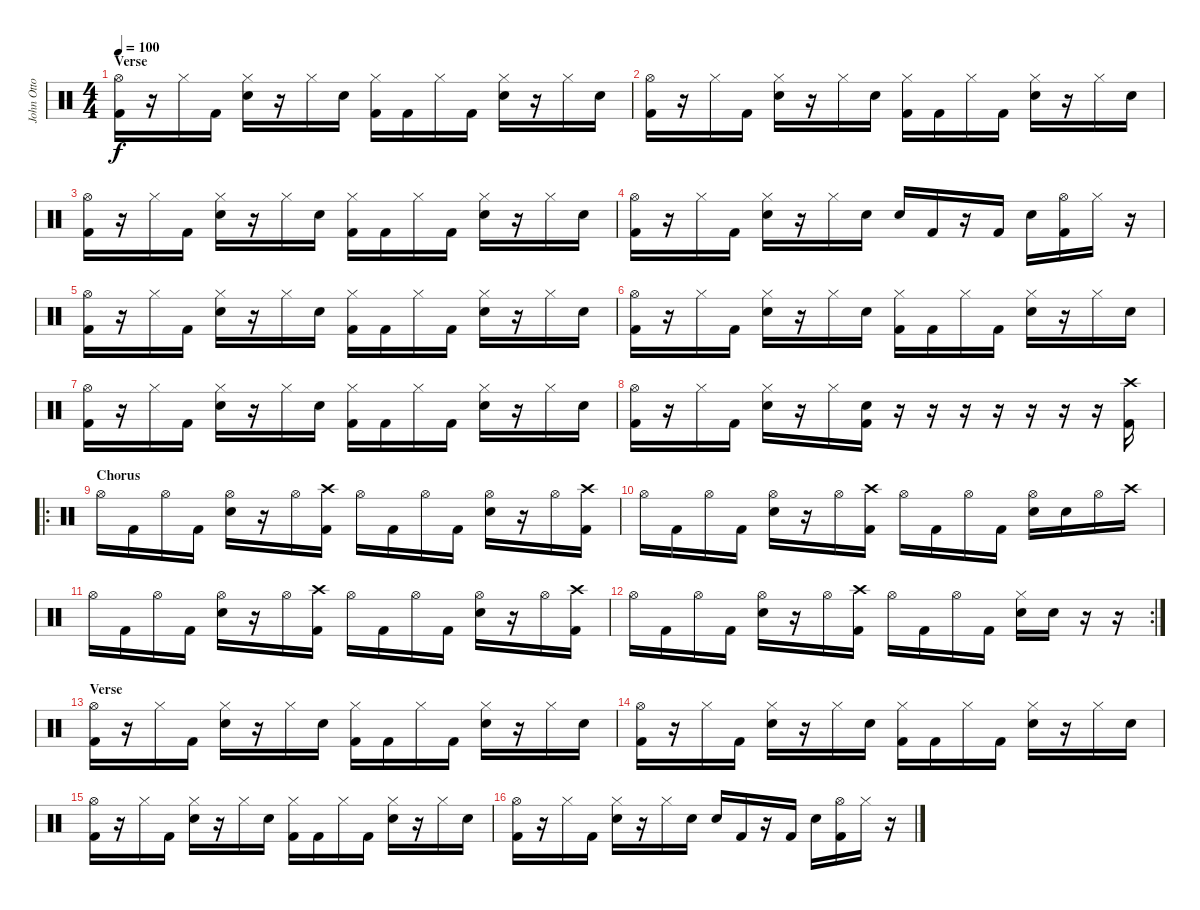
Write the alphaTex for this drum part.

\track ("John Otto" "John Otto") {instrument percussion}
\staff {score}
\articulation defaults
\ts (4 4)
\section ("" "Verse")
\tempo 100
\clef neutral
\ks c
("Hi-Hat (open)" "Kick (hit) 2").16{dy f} r.16 "Hi-Hat (closed)".16 "Kick (hit) 2".16 ("Hi-Hat (closed)" "Snare (hit) 2").16 r.16 "Hi-Hat (closed)".16 "Snare (hit) 2".16 ("Hi-Hat (closed)" "Kick (hit) 2").16 "Kick (hit) 2".16 "Hi-Hat (closed)".16 "Kick (hit) 2".16 ("Hi-Hat (closed)" "Snare (hit) 2").16 r.16 "Hi-Hat (closed)".16 "Snare (hit) 2".16 |
("Hi-Hat (open)" "Kick (hit) 2").16 r.16 "Hi-Hat (closed)".16 "Kick (hit) 2".16 ("Hi-Hat (closed)" "Snare (hit) 2").16 r.16 "Hi-Hat (closed)".16 "Snare (hit) 2".16 ("Hi-Hat (closed)" "Kick (hit) 2").16 "Kick (hit) 2".16 "Hi-Hat (closed)".16 "Kick (hit) 2".16 ("Hi-Hat (closed)" "Snare (hit) 2").16 r.16 "Hi-Hat (closed)".16 "Snare (hit) 2".16 |
("Hi-Hat (open)" "Kick (hit) 2").16 r.16 "Hi-Hat (closed)".16 "Kick (hit) 2".16 ("Hi-Hat (closed)" "Snare (hit) 2").16 r.16 "Hi-Hat (closed)".16 "Snare (hit) 2".16 ("Hi-Hat (closed)" "Kick (hit) 2").16 "Kick (hit) 2".16 "Hi-Hat (closed)".16 "Kick (hit) 2".16 ("Hi-Hat (closed)" "Snare (hit) 2").16 r.16 "Hi-Hat (closed)".16 "Snare (hit) 2".16 |
("Hi-Hat (open)" "Kick (hit) 2").16 r.16 "Hi-Hat (closed)".16 "Kick (hit) 2".16 ("Hi-Hat (closed)" "Snare (hit) 2").16 r.16 "Hi-Hat (closed)".16 "Snare (hit) 2".16 "Snare (hit) 2".16 "Kick (hit) 2".16 r.16 "Kick (hit) 2".16 "Snare (hit) 2".16 ("Hi-Hat (open)" "Kick (hit) 2").16 "Hi-Hat (closed)".16 r.16 |
("Hi-Hat (open)" "Kick (hit) 2").16 r.16 "Hi-Hat (closed)".16 "Kick (hit) 2".16 ("Hi-Hat (closed)" "Snare (hit) 2").16 r.16 "Hi-Hat (closed)".16 "Snare (hit) 2".16 ("Hi-Hat (closed)" "Kick (hit) 2").16 "Kick (hit) 2".16 "Hi-Hat (closed)".16 "Kick (hit) 2".16 ("Hi-Hat (closed)" "Snare (hit) 2").16 r.16 "Hi-Hat (closed)".16 "Snare (hit) 2".16 |
("Hi-Hat (open)" "Kick (hit) 2").16 r.16 "Hi-Hat (closed)".16 "Kick (hit) 2".16 ("Hi-Hat (closed)" "Snare (hit) 2").16 r.16 "Hi-Hat (closed)".16 "Snare (hit) 2".16 ("Hi-Hat (closed)" "Kick (hit) 2").16 "Kick (hit) 2".16 "Hi-Hat (closed)".16 "Kick (hit) 2".16 ("Hi-Hat (closed)" "Snare (hit) 2").16 r.16 "Hi-Hat (closed)".16 "Snare (hit) 2".16 |
("Hi-Hat (open)" "Kick (hit) 2").16 r.16 "Hi-Hat (closed)".16 "Kick (hit) 2".16 ("Hi-Hat (closed)" "Snare (hit) 2").16 r.16 "Hi-Hat (closed)".16 "Snare (hit) 2".16 ("Hi-Hat (closed)" "Kick (hit) 2").16 "Kick (hit) 2".16 "Hi-Hat (closed)".16 "Kick (hit) 2".16 ("Hi-Hat (closed)" "Snare (hit) 2").16 r.16 "Hi-Hat (closed)".16 "Snare (hit) 2".16 |
("Hi-Hat (open)" "Kick (hit) 2").16 r.16 "Hi-Hat (closed)".16 "Kick (hit) 2".16 ("Hi-Hat (closed)" "Snare (hit) 2").16 r.16 "Hi-Hat (closed)".16 ("Snare (hit) 2" "Kick (hit) 2").16 r.16 r.16 r.16 r.16 r.16 r.16 r.16 ("Crash high (hit)" "Kick (hit) 2").16 |
\ro
\section ("" "Chorus")
"Hi-Hat (open)".16 "Kick (hit) 2".16 "Hi-Hat (open)".16 "Kick (hit) 2".16 ("Hi-Hat (open)" "Snare (hit) 2").16 r.16 "Hi-Hat (open)".16 ("Crash high (hit)" "Kick (hit) 2").16 "Hi-Hat (open)".16 "Kick (hit) 2".16 "Hi-Hat (open)".16 "Kick (hit) 2".16 ("Hi-Hat (open)" "Snare (hit) 2").16 r.16 "Hi-Hat (open)".16 ("Crash high (hit)" "Kick (hit) 2").16 |
"Hi-Hat (open)".16 "Kick (hit) 2".16 "Hi-Hat (open)".16 "Kick (hit) 2".16 ("Hi-Hat (open)" "Snare (hit) 2").16 r.16 "Hi-Hat (open)".16 ("Crash high (hit)" "Kick (hit) 2").16 "Hi-Hat (open)".16 "Kick (hit) 2".16 "Hi-Hat (open)".16 "Kick (hit) 2".16 ("Hi-Hat (open)" "Snare (hit) 2").16 "Snare (hit) 2".16 "Hi-Hat (open)".16 "Crash high (hit)".16 |
"Hi-Hat (open)".16 "Kick (hit) 2".16 "Hi-Hat (open)".16 "Kick (hit) 2".16 ("Hi-Hat (open)" "Snare (hit) 2").16 r.16 "Hi-Hat (open)".16 ("Crash high (hit)" "Kick (hit) 2").16 "Hi-Hat (open)".16 "Kick (hit) 2".16 "Hi-Hat (open)".16 "Kick (hit) 2".16 ("Hi-Hat (open)" "Snare (hit) 2").16 r.16 "Hi-Hat (open)".16 ("Crash high (hit)" "Kick (hit) 2").16 |
\rc 2 "Hi-Hat (open)".16 "Kick (hit) 2".16 "Hi-Hat (open)".16 "Kick (hit) 2".16
("Hi-Hat (open)" "Snare (hit) 2").16 r.16 "Hi-Hat (open)".16 ("Crash high (hit)" "Kick (hit) 2").16 "Hi-Hat (open)".16 "Kick (hit) 2".16 "Hi-Hat (open)".16 "Kick (hit) 2".16 ("Hi-Hat (closed)" "Snare (hit) 2").16 "Snare (hit) 2".16 r.16 r.16 |
\section ("" "Verse")
("Hi-Hat (open)" "Kick (hit) 2").16 r.16 "Hi-Hat (closed)".16 "Kick (hit) 2".16 ("Hi-Hat (closed)" "Snare (hit) 2").16 r.16 "Hi-Hat (closed)".16 "Snare (hit) 2".16 ("Hi-Hat (closed)" "Kick (hit) 2").16 "Kick (hit) 2".16 "Hi-Hat (closed)".16 "Kick (hit) 2".16 ("Hi-Hat (closed)" "Snare (hit) 2").16 r.16 "Hi-Hat (closed)".16 "Snare (hit) 2".16 |
("Hi-Hat (open)" "Kick (hit) 2").16 r.16 "Hi-Hat (closed)".16 "Kick (hit) 2".16 ("Hi-Hat (closed)" "Snare (hit) 2").16 r.16 "Hi-Hat (closed)".16 "Snare (hit) 2".16 ("Hi-Hat (closed)" "Kick (hit) 2").16 "Kick (hit) 2".16 "Hi-Hat (closed)".16 "Kick (hit) 2".16 ("Hi-Hat (closed)" "Snare (hit) 2").16 r.16 "Hi-Hat (closed)".16 "Snare (hit) 2".16 |
("Hi-Hat (open)" "Kick (hit) 2").16 r.16 "Hi-Hat (closed)".16 "Kick (hit) 2".16 ("Hi-Hat (closed)" "Snare (hit) 2").16 r.16 "Hi-Hat (closed)".16 "Snare (hit) 2".16 ("Hi-Hat (closed)" "Kick (hit) 2").16 "Kick (hit) 2".16 "Hi-Hat (closed)".16 "Kick (hit) 2".16 ("Hi-Hat (closed)" "Snare (hit) 2").16 r.16 "Hi-Hat (closed)".16 "Snare (hit) 2".16 |
("Hi-Hat (open)" "Kick (hit) 2").16 r.16 "Hi-Hat (closed)".16 "Kick (hit) 2".16 ("Hi-Hat (closed)" "Snare (hit) 2").16 r.16 "Hi-Hat (closed)".16 "Snare (hit) 2".16 "Snare (hit) 2".16 "Kick (hit) 2".16 r.16 "Kick (hit) 2".16 "Snare (hit) 2".16 ("Hi-Hat (open)" "Kick (hit) 2").16 "Hi-Hat (closed)".16 r.16
